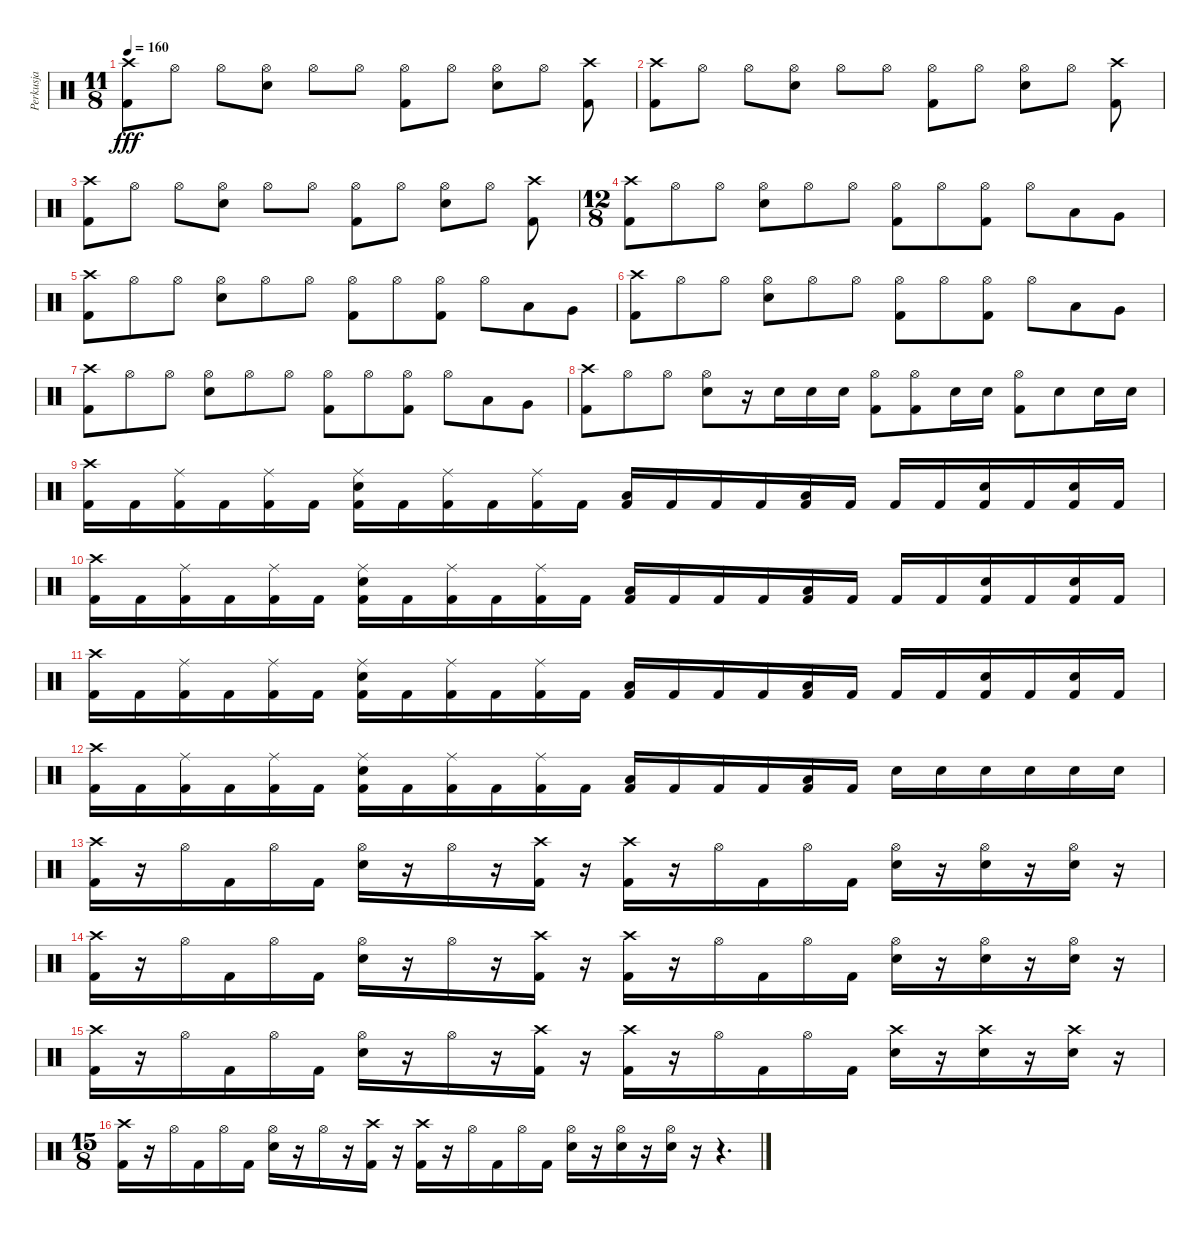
\track ("Perkusja" "Perkusja") {instrument percussion bank 10}
\staff {score}
\articulation defaults
\ts (11 8)
\tempo 160
\clef neutral
\ks c
("Crash high (hit)" "Kick (hit) 2").8{dy fff} "Hi-Hat (open)".8 "Hi-Hat (open)".8 ("Hi-Hat (open)" "Snare (hit) 2").8 "Hi-Hat (open)".8 "Hi-Hat (open)".8 ("Hi-Hat (open)" "Kick (hit) 2").8 "Hi-Hat (open)".8 ("Hi-Hat (open)" "Snare (hit) 2").8 "Hi-Hat (open)".8 ("Crash high (hit)" "Kick (hit) 2").8 |
("Crash high (hit)" "Kick (hit) 2").8 "Hi-Hat (open)".8 "Hi-Hat (open)".8 ("Hi-Hat (open)" "Snare (hit) 2").8 "Hi-Hat (open)".8 "Hi-Hat (open)".8 ("Hi-Hat (open)" "Kick (hit) 2").8 "Hi-Hat (open)".8 ("Hi-Hat (open)" "Snare (hit) 2").8 "Hi-Hat (open)".8 ("Crash high (hit)" "Kick (hit) 2").8 |
("Crash high (hit)" "Kick (hit) 2").8 "Hi-Hat (open)".8 "Hi-Hat (open)".8 ("Hi-Hat (open)" "Snare (hit) 2").8 "Hi-Hat (open)".8 "Hi-Hat (open)".8 ("Hi-Hat (open)" "Kick (hit) 2").8 "Hi-Hat (open)".8 ("Hi-Hat (open)" "Snare (hit) 2").8 "Hi-Hat (open)".8 ("Crash high (hit)" "Kick (hit) 2").8 |
\ts (12 8)
("Crash high (hit)" "Kick (hit) 2").8 "Hi-Hat (open)".8 "Hi-Hat (open)".8 ("Hi-Hat (open)" "Snare (hit) 2").8 "Hi-Hat (open)".8 "Hi-Hat (open)".8 ("Hi-Hat (open)" "Kick (hit) 2").8 "Hi-Hat (open)".8 ("Hi-Hat (open)" "Kick (hit) 2").8 "Hi-Hat (open)".8 "Low Tom (hit)".8 "Very Low Tom (hit)".8 |
("Crash high (hit)" "Kick (hit) 2").8 "Hi-Hat (open)".8 "Hi-Hat (open)".8 ("Hi-Hat (open)" "Snare (hit) 2").8 "Hi-Hat (open)".8 "Hi-Hat (open)".8 ("Hi-Hat (open)" "Kick (hit) 2").8 "Hi-Hat (open)".8 ("Hi-Hat (open)" "Kick (hit) 2").8 "Hi-Hat (open)".8 "Low Tom (hit)".8 "Very Low Tom (hit)".8 |
("Crash high (hit)" "Kick (hit) 2").8 "Hi-Hat (open)".8 "Hi-Hat (open)".8 ("Hi-Hat (open)" "Snare (hit) 2").8 "Hi-Hat (open)".8 "Hi-Hat (open)".8 ("Hi-Hat (open)" "Kick (hit) 2").8 "Hi-Hat (open)".8 ("Hi-Hat (open)" "Kick (hit) 2").8 "Hi-Hat (open)".8 "Low Tom (hit)".8 "Very Low Tom (hit)".8 |
("Crash high (hit)" "Kick (hit) 2").8 "Hi-Hat (open)".8 "Hi-Hat (open)".8 ("Hi-Hat (open)" "Snare (hit) 2").8 "Hi-Hat (open)".8 "Hi-Hat (open)".8 ("Hi-Hat (open)" "Kick (hit) 2").8 "Hi-Hat (open)".8 ("Hi-Hat (open)" "Kick (hit) 2").8 "Hi-Hat (open)".8 "Low Tom (hit)".8 "Very Low Tom (hit)".8 |
("Crash high (hit)" "Kick (hit) 2").8 "Hi-Hat (open)".8 "Hi-Hat (open)".8 ("Hi-Hat (open)" "Snare (hit) 2").8 r.16 "Snare (hit) 2".16 "Snare (hit) 2".16 "Snare (hit) 2".16 ("Hi-Hat (open)" "Kick (hit) 2").8 ("Hi-Hat (open)" "Kick (hit) 2").8 "Snare (hit) 2".16 "Snare (hit) 2".16 ("Hi-Hat (open)" "Kick (hit) 2").8 "Snare (hit) 2".8 "Snare (hit) 2".16 "Snare (hit) 2".16 |
("Crash high (hit)" "Kick (hit) 2").16 "Kick (hit) 2".16 ("Ride (middle)" "Kick (hit) 2").16 "Kick (hit) 2".16 ("Ride (middle)" "Kick (hit) 2").16 "Kick (hit) 2".16 ("Ride (middle)" "Snare (hit) 2" "Kick (hit) 2").16 "Kick (hit) 2".16 ("Ride (middle)" "Kick (hit) 2").16 "Kick (hit) 2".16 ("Ride (middle)" "Kick (hit) 2").16 "Kick (hit) 2".16 ("Low Tom (hit)" "Kick (hit) 2").16 "Kick (hit) 2".16 "Kick (hit) 2".16 "Kick (hit) 2".16 ("Low Tom (hit)" "Kick (hit) 2").16 "Kick (hit) 2".16 "Kick (hit) 2".16 "Kick (hit) 2".16 ("Snare (hit) 2" "Kick (hit) 2").16 "Kick (hit) 2".16 ("Snare (hit) 2" "Kick (hit) 2").16 "Kick (hit) 2".16 |
("Crash high (hit)" "Kick (hit) 2").16 "Kick (hit) 2".16 ("Ride (middle)" "Kick (hit) 2").16 "Kick (hit) 2".16 ("Ride (middle)" "Kick (hit) 2").16 "Kick (hit) 2".16 ("Ride (middle)" "Snare (hit) 2" "Kick (hit) 2").16 "Kick (hit) 2".16 ("Ride (middle)" "Kick (hit) 2").16 "Kick (hit) 2".16 ("Ride (middle)" "Kick (hit) 2").16 "Kick (hit) 2".16 ("Low Tom (hit)" "Kick (hit) 2").16 "Kick (hit) 2".16 "Kick (hit) 2".16 "Kick (hit) 2".16 ("Low Tom (hit)" "Kick (hit) 2").16 "Kick (hit) 2".16 "Kick (hit) 2".16 "Kick (hit) 2".16 ("Snare (hit) 2" "Kick (hit) 2").16 "Kick (hit) 2".16 ("Snare (hit) 2" "Kick (hit) 2").16 "Kick (hit) 2".16 |
("Crash high (hit)" "Kick (hit) 2").16 "Kick (hit) 2".16 ("Ride (middle)" "Kick (hit) 2").16 "Kick (hit) 2".16 ("Ride (middle)" "Kick (hit) 2").16 "Kick (hit) 2".16 ("Ride (middle)" "Snare (hit) 2" "Kick (hit) 2").16 "Kick (hit) 2".16 ("Ride (middle)" "Kick (hit) 2").16 "Kick (hit) 2".16 ("Ride (middle)" "Kick (hit) 2").16 "Kick (hit) 2".16 ("Low Tom (hit)" "Kick (hit) 2").16 "Kick (hit) 2".16 "Kick (hit) 2".16 "Kick (hit) 2".16 ("Low Tom (hit)" "Kick (hit) 2").16 "Kick (hit) 2".16 "Kick (hit) 2".16 "Kick (hit) 2".16 ("Snare (hit) 2" "Kick (hit) 2").16 "Kick (hit) 2".16 ("Snare (hit) 2" "Kick (hit) 2").16 "Kick (hit) 2".16 |
("Crash high (hit)" "Kick (hit) 2").16 "Kick (hit) 2".16 ("Ride (middle)" "Kick (hit) 2").16 "Kick (hit) 2".16 ("Ride (middle)" "Kick (hit) 2").16 "Kick (hit) 2".16 ("Ride (middle)" "Snare (hit) 2" "Kick (hit) 2").16 "Kick (hit) 2".16 ("Ride (middle)" "Kick (hit) 2").16 "Kick (hit) 2".16 ("Ride (middle)" "Kick (hit) 2").16 "Kick (hit) 2".16 ("Low Tom (hit)" "Kick (hit) 2").16 "Kick (hit) 2".16 "Kick (hit) 2".16 "Kick (hit) 2".16 ("Low Tom (hit)" "Kick (hit) 2").16 "Kick (hit) 2".16 "Snare (hit) 2".16 "Snare (hit) 2".16 "Snare (hit) 2".16 "Snare (hit) 2".16 "Snare (hit) 2".16 "Snare (hit) 2".16 |
("Crash high (hit)" "Kick (hit) 2").16 r.16 "Hi-Hat (open)".16 "Kick (hit) 2".16 "Hi-Hat (open)".16 "Kick (hit) 2".16 ("Hi-Hat (open)" "Snare (hit) 2").16 r.16 "Hi-Hat (open)".16 r.16 ("Crash high (hit)" "Kick (hit) 2").16 r.16 ("Crash high (hit)" "Kick (hit) 2").16 r.16 "Hi-Hat (open)".16 "Kick (hit) 2".16 "Hi-Hat (open)".16 "Kick (hit) 2".16 ("Hi-Hat (open)" "Snare (hit) 2").16 r.16 ("Hi-Hat (open)" "Snare (hit) 2").16 r.16 ("Hi-Hat (open)" "Snare (hit) 2").16 r.16 |
("Crash high (hit)" "Kick (hit) 2").16 r.16 "Hi-Hat (open)".16 "Kick (hit) 2".16 "Hi-Hat (open)".16 "Kick (hit) 2".16 ("Hi-Hat (open)" "Snare (hit) 2").16 r.16 "Hi-Hat (open)".16 r.16 ("Crash high (hit)" "Kick (hit) 2").16 r.16 ("Crash high (hit)" "Kick (hit) 2").16 r.16 "Hi-Hat (open)".16 "Kick (hit) 2".16 "Hi-Hat (open)".16 "Kick (hit) 2".16 ("Hi-Hat (open)" "Snare (hit) 2").16 r.16 ("Hi-Hat (open)" "Snare (hit) 2").16 r.16 ("Hi-Hat (open)" "Snare (hit) 2").16 r.16 |
("Crash high (hit)" "Kick (hit) 2").16 r.16 "Hi-Hat (open)".16 "Kick (hit) 2".16 "Hi-Hat (open)".16 "Kick (hit) 2".16 ("Hi-Hat (open)" "Snare (hit) 2").16 r.16 "Hi-Hat (open)".16 r.16 ("Crash high (hit)" "Kick (hit) 2").16 r.16 ("Crash high (hit)" "Kick (hit) 2").16 r.16 "Hi-Hat (open)".16 "Kick (hit) 2".16 "Hi-Hat (open)".16 "Kick (hit) 2".16 ("Crash high (hit)" "Snare (hit) 2").16 r.16 ("Crash high (hit)" "Snare (hit) 2").16 r.16 ("Crash high (hit)" "Snare (hit) 2").16 r.16 |
\ts (15 8)
("Crash high (hit)" "Kick (hit) 2").16 r.16 "Hi-Hat (open)".16 "Kick (hit) 2".16 "Hi-Hat (open)".16 "Kick (hit) 2".16 ("Hi-Hat (open)" "Snare (hit) 2").16 r.16 "Hi-Hat (open)".16 r.16 ("Crash high (hit)" "Kick (hit) 2").16 r.16 ("Crash high (hit)" "Kick (hit) 2").16 r.16 "Hi-Hat (open)".16 "Kick (hit) 2".16 "Hi-Hat (open)".16 "Kick (hit) 2".16 ("Hi-Hat (open)" "Snare (hit) 2").16 r.16 ("Hi-Hat (open)" "Snare (hit) 2").16 r.16 ("Hi-Hat (open)" "Snare (hit) 2").16 r.16 r.4{d}
